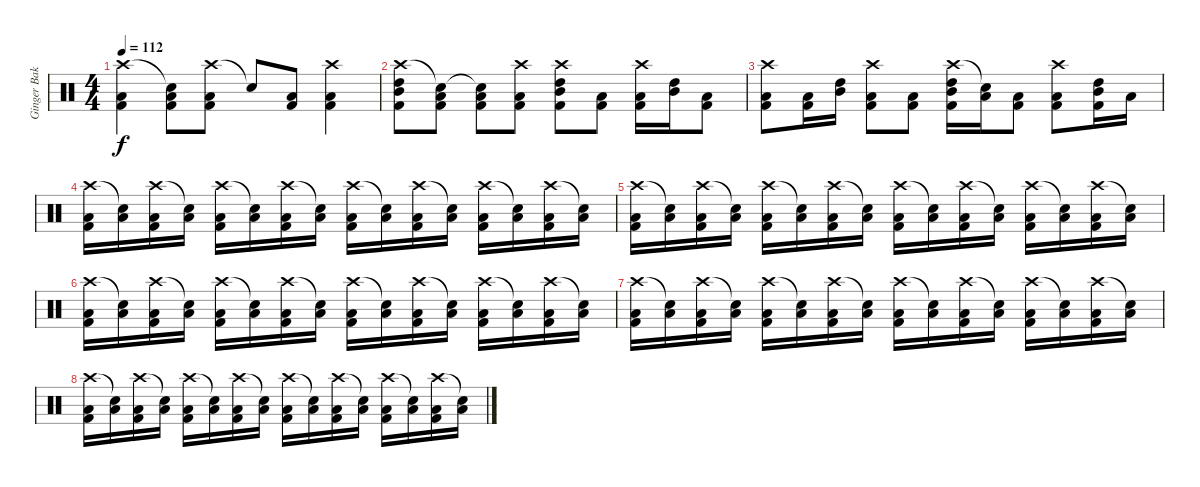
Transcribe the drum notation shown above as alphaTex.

\track ("Ginger Baker" "Ginger Bak") {instrument percussion}
\staff {score}
\articulation defaults
\ts (4 4)
\tempo 112
\clef neutral
\ks c
("Crash high (hit)" "Low Tom (hit)" "Kick (hit) 2").4{dy f} ("Snare (hit)"{t} "Low Tom (hit)" "Kick (hit) 2").8 ("Crash high (hit)" "Low Tom (hit)" "Kick (hit) 2").8 "Snare (hit)"{t}.8 ("Low Tom (hit)" "Kick (hit) 2").8 ("Crash high (hit)" "Low Tom (hit)" "Kick (hit) 2").4 |
("Crash high (hit)" "High Tom (hit)" "Mid Tom (hit)" "Kick (hit) 2").8 ("Snare (hit)"{t} "Low Tom (hit)" "Kick (hit) 2").8 ("Snare (hit)"{t} "Low Tom (hit)" "Kick (hit) 2").8 ("Crash high (hit)" "Low Tom (hit)" "Kick (hit) 2").8 ("Crash high (hit)" "High Tom (hit)" "Mid Tom (hit)" "Kick (hit) 2").8 ("Low Tom (hit)" "Kick (hit) 2").8 ("Crash high (hit)" "Low Tom (hit)" "Kick (hit) 2").16 ("High Tom (hit)" "Mid Tom (hit)").16 ("Low Tom (hit)" "Kick (hit) 2").8 |
("Crash high (hit)" "Low Tom (hit)" "Kick (hit) 2").8 ("Low Tom (hit)" "Kick (hit) 2").16 ("High Tom (hit)" "Mid Tom (hit)").16 ("Crash high (hit)" "Low Tom (hit)" "Kick (hit) 2").8 ("Low Tom (hit)" "Kick (hit) 2").8 ("Crash high (hit)" "High Tom (hit)" "Mid Tom (hit)" "Kick (hit) 2").16 ("Snare (hit)"{t} "Low Tom (hit)").16 ("Low Tom (hit)" "Kick (hit) 2").8 ("Crash high (hit)" "Low Tom (hit)" "Kick (hit) 2").8 ("High Tom (hit)" "Mid Tom (hit)" "Kick (hit) 2").16 "Low Tom (hit)".16 |
("Crash high (hit)" "Low Tom (hit)" "Kick (hit) 2").16 ("Snare (hit)"{t} "Low Tom (hit)").16 ("Crash high (hit)" "Low Tom (hit)" "Kick (hit) 2").16 ("Snare (hit)"{t} "Low Tom (hit)").16 ("Crash high (hit)" "Low Tom (hit)" "Kick (hit) 2").16 ("Snare (hit)"{t} "Low Tom (hit)").16 ("Crash high (hit)" "Low Tom (hit)" "Kick (hit) 2").16 ("Snare (hit)"{t} "Low Tom (hit)").16 ("Crash high (hit)" "Low Tom (hit)" "Kick (hit) 2").16 ("Snare (hit)"{t} "Low Tom (hit)").16 ("Crash high (hit)" "Low Tom (hit)" "Kick (hit) 2").16 ("Snare (hit)"{t} "Low Tom (hit)").16 ("Crash high (hit)" "Low Tom (hit)" "Kick (hit) 2").16 ("Snare (hit)"{t} "Low Tom (hit)").16 ("Crash high (hit)" "Low Tom (hit)" "Kick (hit) 2").16 ("Snare (hit)"{t} "Low Tom (hit)").16 |
("Crash high (hit)" "Low Tom (hit)" "Kick (hit) 2").16 ("Snare (hit)"{t} "Low Tom (hit)").16 ("Crash high (hit)" "Low Tom (hit)" "Kick (hit) 2").16 ("Snare (hit)"{t} "Low Tom (hit)").16 ("Crash high (hit)" "Low Tom (hit)" "Kick (hit) 2").16 ("Snare (hit)"{t} "Low Tom (hit)").16 ("Crash high (hit)" "Low Tom (hit)" "Kick (hit) 2").16 ("Snare (hit)"{t} "Low Tom (hit)").16 ("Crash high (hit)" "Low Tom (hit)" "Kick (hit) 2").16 ("Snare (hit)"{t} "Low Tom (hit)").16 ("Crash high (hit)" "Low Tom (hit)" "Kick (hit) 2").16 ("Snare (hit)"{t} "Low Tom (hit)").16 ("Crash high (hit)" "Low Tom (hit)" "Kick (hit) 2").16 ("Snare (hit)"{t} "Low Tom (hit)").16 ("Crash high (hit)" "Low Tom (hit)" "Kick (hit) 2").16 ("Snare (hit)"{t} "Low Tom (hit)").16 |
("Crash high (hit)" "Low Tom (hit)" "Kick (hit) 2").16 ("Snare (hit)"{t} "Low Tom (hit)").16 ("Crash high (hit)" "Low Tom (hit)" "Kick (hit) 2").16 ("Snare (hit)"{t} "Low Tom (hit)").16 ("Crash high (hit)" "Low Tom (hit)" "Kick (hit) 2").16 ("Snare (hit)"{t} "Low Tom (hit)").16 ("Crash high (hit)" "Low Tom (hit)" "Kick (hit) 2").16 ("Snare (hit)"{t} "Low Tom (hit)").16 ("Crash high (hit)" "Low Tom (hit)" "Kick (hit) 2").16 ("Snare (hit)"{t} "Low Tom (hit)").16 ("Crash high (hit)" "Low Tom (hit)" "Kick (hit) 2").16 ("Snare (hit)"{t} "Low Tom (hit)").16 ("Crash high (hit)" "Low Tom (hit)" "Kick (hit) 2").16 ("Snare (hit)"{t} "Low Tom (hit)").16 ("Crash high (hit)" "Low Tom (hit)" "Kick (hit) 2").16 ("Snare (hit)"{t} "Low Tom (hit)").16 |
("Crash high (hit)" "Low Tom (hit)" "Kick (hit) 2").16 ("Snare (hit)"{t} "Low Tom (hit)").16 ("Crash high (hit)" "Low Tom (hit)" "Kick (hit) 2").16 ("Snare (hit)"{t} "Low Tom (hit)").16 ("Crash high (hit)" "Low Tom (hit)" "Kick (hit) 2").16 ("Snare (hit)"{t} "Low Tom (hit)").16 ("Crash high (hit)" "Low Tom (hit)" "Kick (hit) 2").16 ("Snare (hit)"{t} "Low Tom (hit)").16 ("Crash high (hit)" "Low Tom (hit)" "Kick (hit) 2").16 ("Snare (hit)"{t} "Low Tom (hit)").16 ("Crash high (hit)" "Low Tom (hit)" "Kick (hit) 2").16 ("Snare (hit)"{t} "Low Tom (hit)").16 ("Crash high (hit)" "Low Tom (hit)" "Kick (hit) 2").16 ("Snare (hit)"{t} "Low Tom (hit)").16 ("Crash high (hit)" "Low Tom (hit)" "Kick (hit) 2").16 ("Snare (hit)"{t} "Low Tom (hit)").16 |
("Crash high (hit)" "Low Tom (hit)" "Kick (hit) 2").16 ("Snare (hit)"{t} "Low Tom (hit)").16 ("Crash high (hit)" "Low Tom (hit)" "Kick (hit) 2").16 ("Snare (hit)"{t} "Low Tom (hit)").16 ("Crash high (hit)" "Low Tom (hit)" "Kick (hit) 2").16 ("Snare (hit)"{t} "Low Tom (hit)").16 ("Crash high (hit)" "Low Tom (hit)" "Kick (hit) 2").16 ("Snare (hit)"{t} "Low Tom (hit)").16 ("Crash high (hit)" "Low Tom (hit)" "Kick (hit) 2").16 ("Snare (hit)"{t} "Low Tom (hit)").16 ("Crash high (hit)" "Low Tom (hit)" "Kick (hit) 2").16 ("Snare (hit)"{t} "Low Tom (hit)").16 ("Crash high (hit)" "Low Tom (hit)" "Kick (hit) 2").16 ("Snare (hit)"{t} "Low Tom (hit)").16 ("Crash high (hit)" "Low Tom (hit)" "Kick (hit) 2").16 ("Snare (hit)"{t} "Low Tom (hit)").16{volume 0}
